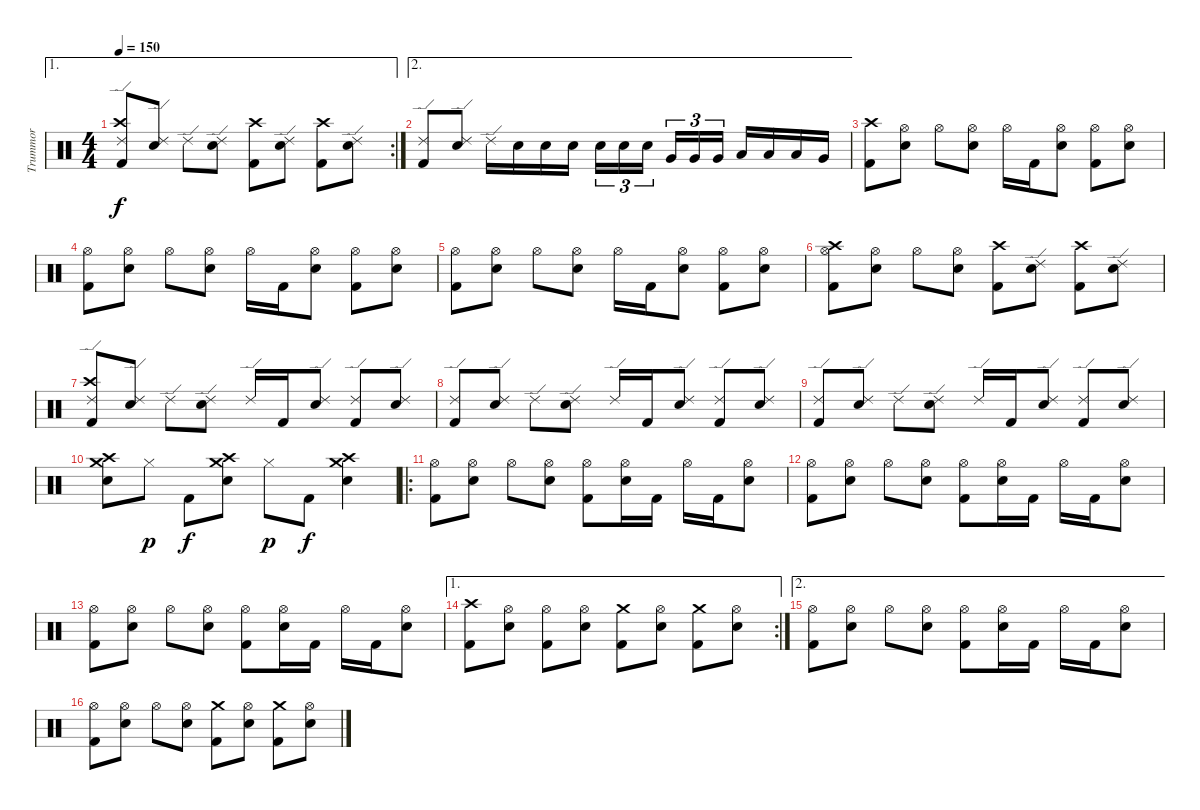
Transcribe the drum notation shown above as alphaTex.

\track ("Trummor" "Trummor") {instrument percussion}
\staff {score}
\articulation defaults
\ae 1
\rc 2
\ts (4 4)
\tempo 150
\clef neutral
\ks c
("Ride (edge) 2" "Crash high (hit)" "Kick (hit) 2").8{dy f} ("Ride (edge) 2" "Snare (hit) 2").8 "Ride (edge) 2".8 ("Ride (edge) 2" "Snare (hit) 2").8 ("Crash high (hit)" "Kick (hit) 2").8 ("Ride (edge) 2" "Snare (hit) 2").8 ("Crash high (hit)" "Kick (hit) 2").8 ("Ride (edge) 2" "Snare (hit) 2").8 |
\ae 2
("Ride (edge) 2" "Kick (hit) 2").8 ("Ride (edge) 2" "Snare (hit) 2").8 "Ride (edge) 2".16 "Snare (hit) 2".16 "Snare (hit) 2".16 "Snare (hit) 2".16 "Snare (hit) 2".16{tu (3 2)} "Snare (hit) 2".16{tu (3 2)} "Snare (hit) 2".16{tu (3 2)} "Very Low Tom (hit)".16{tu (3 2)} "Very Low Tom (hit)".16{tu (3 2)} "Very Low Tom (hit)".16{tu (3 2)} "Low Floor Tom (hit)".16 "Low Floor Tom (hit)".16 "Low Floor Tom (hit)".16 "Very Low Tom (hit)".16 |
("Crash high (hit)" "Kick (hit) 2").8 ("Hi-Hat (open)" "Snare (hit) 2").8 "Hi-Hat (open)".8 ("Hi-Hat (open)" "Snare (hit) 2").8 "Hi-Hat (open)".16 "Kick (hit) 2".16 ("Hi-Hat (open)" "Snare (hit) 2").8 ("Hi-Hat (open)" "Kick (hit) 2").8 ("Hi-Hat (open)" "Snare (hit) 2").8 |
("Hi-Hat (open)" "Kick (hit) 2").8 ("Hi-Hat (open)" "Snare (hit) 2").8 "Hi-Hat (open)".8 ("Hi-Hat (open)" "Snare (hit) 2").8 "Hi-Hat (open)".16 "Kick (hit) 2".16 ("Hi-Hat (open)" "Snare (hit) 2").8 ("Hi-Hat (open)" "Kick (hit) 2").8 ("Hi-Hat (open)" "Snare (hit) 2").8 |
("Hi-Hat (open)" "Kick (hit) 2").8 ("Hi-Hat (open)" "Snare (hit) 2").8 "Hi-Hat (open)".8 ("Hi-Hat (open)" "Snare (hit) 2").8 "Hi-Hat (open)".16 "Kick (hit) 2".16 ("Hi-Hat (open)" "Snare (hit) 2").8 ("Hi-Hat (open)" "Kick (hit) 2").8 ("Hi-Hat (open)" "Snare (hit) 2").8 |
("Hi-Hat (open)" "Crash high (hit)" "Kick (hit) 2").8 ("Hi-Hat (open)" "Snare (hit) 2").8 "Hi-Hat (open)".8 ("Hi-Hat (open)" "Snare (hit) 2").8 ("Crash high (hit)" "Kick (hit) 2").8 ("Ride (edge) 2" "Snare (hit) 2").8 ("Crash high (hit)" "Kick (hit) 2").8 ("Ride (edge) 2" "Snare (hit) 2").8 |
("Ride (edge) 2" "Crash high (hit)" "Kick (hit) 2").8 ("Ride (edge) 2" "Snare (hit) 2").8 "Ride (edge) 2".8 ("Ride (edge) 2" "Snare (hit) 2").8 "Ride (edge) 2".16 "Kick (hit) 2".16 ("Ride (edge) 2" "Snare (hit) 2").8 ("Ride (edge) 2" "Kick (hit) 2").8 ("Ride (edge) 2" "Snare (hit) 2").8 |
("Ride (edge) 2" "Kick (hit) 2").8 ("Ride (edge) 2" "Snare (hit) 2").8 "Ride (edge) 2".8 ("Ride (edge) 2" "Snare (hit) 2").8 "Ride (edge) 2".16 "Kick (hit) 2".16 ("Ride (edge) 2" "Snare (hit) 2").8 ("Ride (edge) 2" "Kick (hit) 2").8 ("Ride (edge) 2" "Snare (hit) 2").8 |
("Ride (edge) 2" "Kick (hit) 2").8 ("Ride (edge) 2" "Snare (hit) 2").8 "Ride (edge) 2".8 ("Ride (edge) 2" "Snare (hit) 2").8 "Ride (edge) 2".16 "Kick (hit) 2".16 ("Ride (edge) 2" "Snare (hit) 2").8 ("Ride (edge) 2" "Kick (hit) 2").8 ("Ride (edge) 2" "Snare (hit) 2").8 |
("Crash medium (hit)" "Snare (hit) 2" "Crash high (hit)").8 "Hi-Hat (closed)".8{dy p} "Kick (hit) 2".8{dy f} ("Crash medium (hit)" "Snare (hit) 2" "Crash high (hit)").8 "Hi-Hat (closed)".8{dy p} "Kick (hit) 2".8{dy f} ("Crash medium (hit)" "Snare (hit) 2" "Crash high (hit)").4 |
\ro
("Hi-Hat (open)" "Kick (hit) 2").8 ("Hi-Hat (open)" "Snare (hit) 2").8 "Hi-Hat (open)".8 ("Hi-Hat (open)" "Snare (hit) 2").8 ("Hi-Hat (open)" "Kick (hit) 2").8 ("Hi-Hat (open)" "Snare (hit) 2").16 "Kick (hit) 2".16 "Hi-Hat (open)".16 "Kick (hit) 2".16 ("Hi-Hat (open)" "Snare (hit) 2").8 |
("Hi-Hat (open)" "Kick (hit) 2").8 ("Hi-Hat (open)" "Snare (hit) 2").8 "Hi-Hat (open)".8 ("Hi-Hat (open)" "Snare (hit) 2").8 ("Hi-Hat (open)" "Kick (hit) 2").8 ("Hi-Hat (open)" "Snare (hit) 2").16 "Kick (hit) 2".16 "Hi-Hat (open)".16 "Kick (hit) 2".16 ("Hi-Hat (open)" "Snare (hit) 2").8 |
("Hi-Hat (open)" "Kick (hit) 2").8 ("Hi-Hat (open)" "Snare (hit) 2").8 "Hi-Hat (open)".8 ("Hi-Hat (open)" "Snare (hit) 2").8 ("Hi-Hat (open)" "Kick (hit) 2").8 ("Hi-Hat (open)" "Snare (hit) 2").16 "Kick (hit) 2".16 "Hi-Hat (open)".16 "Kick (hit) 2".16 ("Hi-Hat (open)" "Snare (hit) 2").8 |
\ae 1
\rc 2
("Crash high (hit)" "Kick (hit) 2").8 ("Hi-Hat (open)" "Snare (hit) 2").8 ("Hi-Hat (open)" "Kick (hit) 2").8 ("Hi-Hat (open)" "Snare (hit) 2").8 ("Crash medium (hit)" "Kick (hit) 2").8 ("Hi-Hat (open)" "Snare (hit) 2").8 ("Crash medium (hit)" "Kick (hit) 2").8 ("Hi-Hat (open)" "Snare (hit) 2").8 |
\ae 2
("Hi-Hat (open)" "Kick (hit) 2").8 ("Hi-Hat (open)" "Snare (hit) 2").8 "Hi-Hat (open)".8 ("Hi-Hat (open)" "Snare (hit) 2").8 ("Hi-Hat (open)" "Kick (hit) 2").8 ("Hi-Hat (open)" "Snare (hit) 2").16 "Kick (hit) 2".16 "Hi-Hat (open)".16 "Kick (hit) 2".16 ("Hi-Hat (open)" "Snare (hit) 2").8 |
("Hi-Hat (open)" "Kick (hit) 2").8 ("Hi-Hat (open)" "Snare (hit) 2").8 "Hi-Hat (open)".8 ("Hi-Hat (open)" "Snare (hit) 2").8 ("Crash medium (hit)" "Kick (hit) 2").8 ("Hi-Hat (open)" "Snare (hit) 2").8 ("Crash medium (hit)" "Kick (hit) 2").8 ("Hi-Hat (open)" "Snare (hit) 2").8
